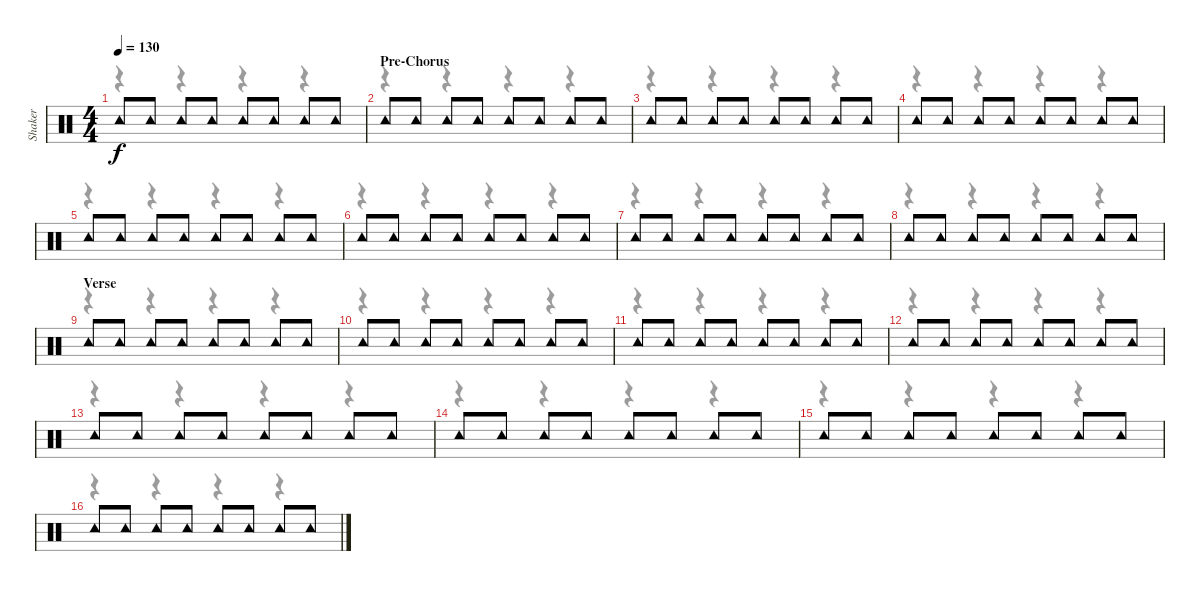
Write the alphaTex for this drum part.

\track ("Shaker" "Shaker") {instrument percussion}
\staff {score}
\articulation defaults
\voice
\ts (4 4)
\tempo 130
\clef neutral
\ks c "Tambourine (hit)".8{dy f} "Tambourine (hit)".8 "Tambourine (hit)".8 "Tambourine (hit)".8 "Tambourine (hit)".8 "Tambourine (hit)".8 "Tambourine (hit)".8 "Tambourine (hit)".8
|
\section ("" "Pre-Chorus")
"Tambourine (hit)".8 "Tambourine (hit)".8 "Tambourine (hit)".8 "Tambourine (hit)".8 "Tambourine (hit)".8 "Tambourine (hit)".8 "Tambourine (hit)".8 "Tambourine (hit)".8 |
"Tambourine (hit)".8 "Tambourine (hit)".8 "Tambourine (hit)".8 "Tambourine (hit)".8 "Tambourine (hit)".8 "Tambourine (hit)".8 "Tambourine (hit)".8 "Tambourine (hit)".8 |
"Tambourine (hit)".8 "Tambourine (hit)".8 "Tambourine (hit)".8 "Tambourine (hit)".8 "Tambourine (hit)".8 "Tambourine (hit)".8 "Tambourine (hit)".8 "Tambourine (hit)".8 |
"Tambourine (hit)".8 "Tambourine (hit)".8 "Tambourine (hit)".8 "Tambourine (hit)".8 "Tambourine (hit)".8 "Tambourine (hit)".8 "Tambourine (hit)".8 "Tambourine (hit)".8 |
"Tambourine (hit)".8 "Tambourine (hit)".8 "Tambourine (hit)".8 "Tambourine (hit)".8 "Tambourine (hit)".8 "Tambourine (hit)".8 "Tambourine (hit)".8 "Tambourine (hit)".8 |
"Tambourine (hit)".8 "Tambourine (hit)".8 "Tambourine (hit)".8 "Tambourine (hit)".8 "Tambourine (hit)".8 "Tambourine (hit)".8 "Tambourine (hit)".8 "Tambourine (hit)".8 |
"Tambourine (hit)".8 "Tambourine (hit)".8 "Tambourine (hit)".8 "Tambourine (hit)".8 "Tambourine (hit)".8 "Tambourine (hit)".8 "Tambourine (hit)".8 "Tambourine (hit)".8 |
\section ("" "Verse")
"Tambourine (hit)".8 "Tambourine (hit)".8 "Tambourine (hit)".8 "Tambourine (hit)".8 "Tambourine (hit)".8 "Tambourine (hit)".8 "Tambourine (hit)".8 "Tambourine (hit)".8 |
"Tambourine (hit)".8 "Tambourine (hit)".8 "Tambourine (hit)".8 "Tambourine (hit)".8 "Tambourine (hit)".8 "Tambourine (hit)".8 "Tambourine (hit)".8 "Tambourine (hit)".8 |
"Tambourine (hit)".8 "Tambourine (hit)".8 "Tambourine (hit)".8 "Tambourine (hit)".8 "Tambourine (hit)".8 "Tambourine (hit)".8 "Tambourine (hit)".8 "Tambourine (hit)".8 |
"Tambourine (hit)".8 "Tambourine (hit)".8 "Tambourine (hit)".8 "Tambourine (hit)".8 "Tambourine (hit)".8 "Tambourine (hit)".8 "Tambourine (hit)".8 "Tambourine (hit)".8 |
"Tambourine (hit)".8 "Tambourine (hit)".8 "Tambourine (hit)".8 "Tambourine (hit)".8 "Tambourine (hit)".8 "Tambourine (hit)".8 "Tambourine (hit)".8 "Tambourine (hit)".8 |
"Tambourine (hit)".8 "Tambourine (hit)".8 "Tambourine (hit)".8 "Tambourine (hit)".8 "Tambourine (hit)".8 "Tambourine (hit)".8 "Tambourine (hit)".8 "Tambourine (hit)".8 |
"Tambourine (hit)".8 "Tambourine (hit)".8 "Tambourine (hit)".8 "Tambourine (hit)".8 "Tambourine (hit)".8 "Tambourine (hit)".8 "Tambourine (hit)".8 "Tambourine (hit)".8 |
"Tambourine (hit)".8 "Tambourine (hit)".8 "Tambourine (hit)".8 "Tambourine (hit)".8 "Tambourine (hit)".8 "Tambourine (hit)".8 "Tambourine (hit)".8 "Tambourine (hit)".8
\voice
\clef neutral
\ottava regular
\simile none
\ks c
r.4{dy f} r.4 r.4 r.4 |
r.4 r.4 r.4 r.4 |
r.4 r.4 r.4 r.4 |
r.4 r.4 r.4 r.4 |
r.4 r.4 r.4 r.4 |
r.4 r.4 r.4 r.4 |
r.4 r.4 r.4 r.4 |
r.4 r.4 r.4 r.4 |
r.4 r.4 r.4 r.4 |
r.4 r.4 r.4 r.4 |
r.4 r.4 r.4 r.4 |
r.4 r.4 r.4 r.4 |
r.4 r.4 r.4 r.4 |
r.4 r.4 r.4 r.4 |
r.4 r.4 r.4 r.4 |
r.4 r.4 r.4 r.4
